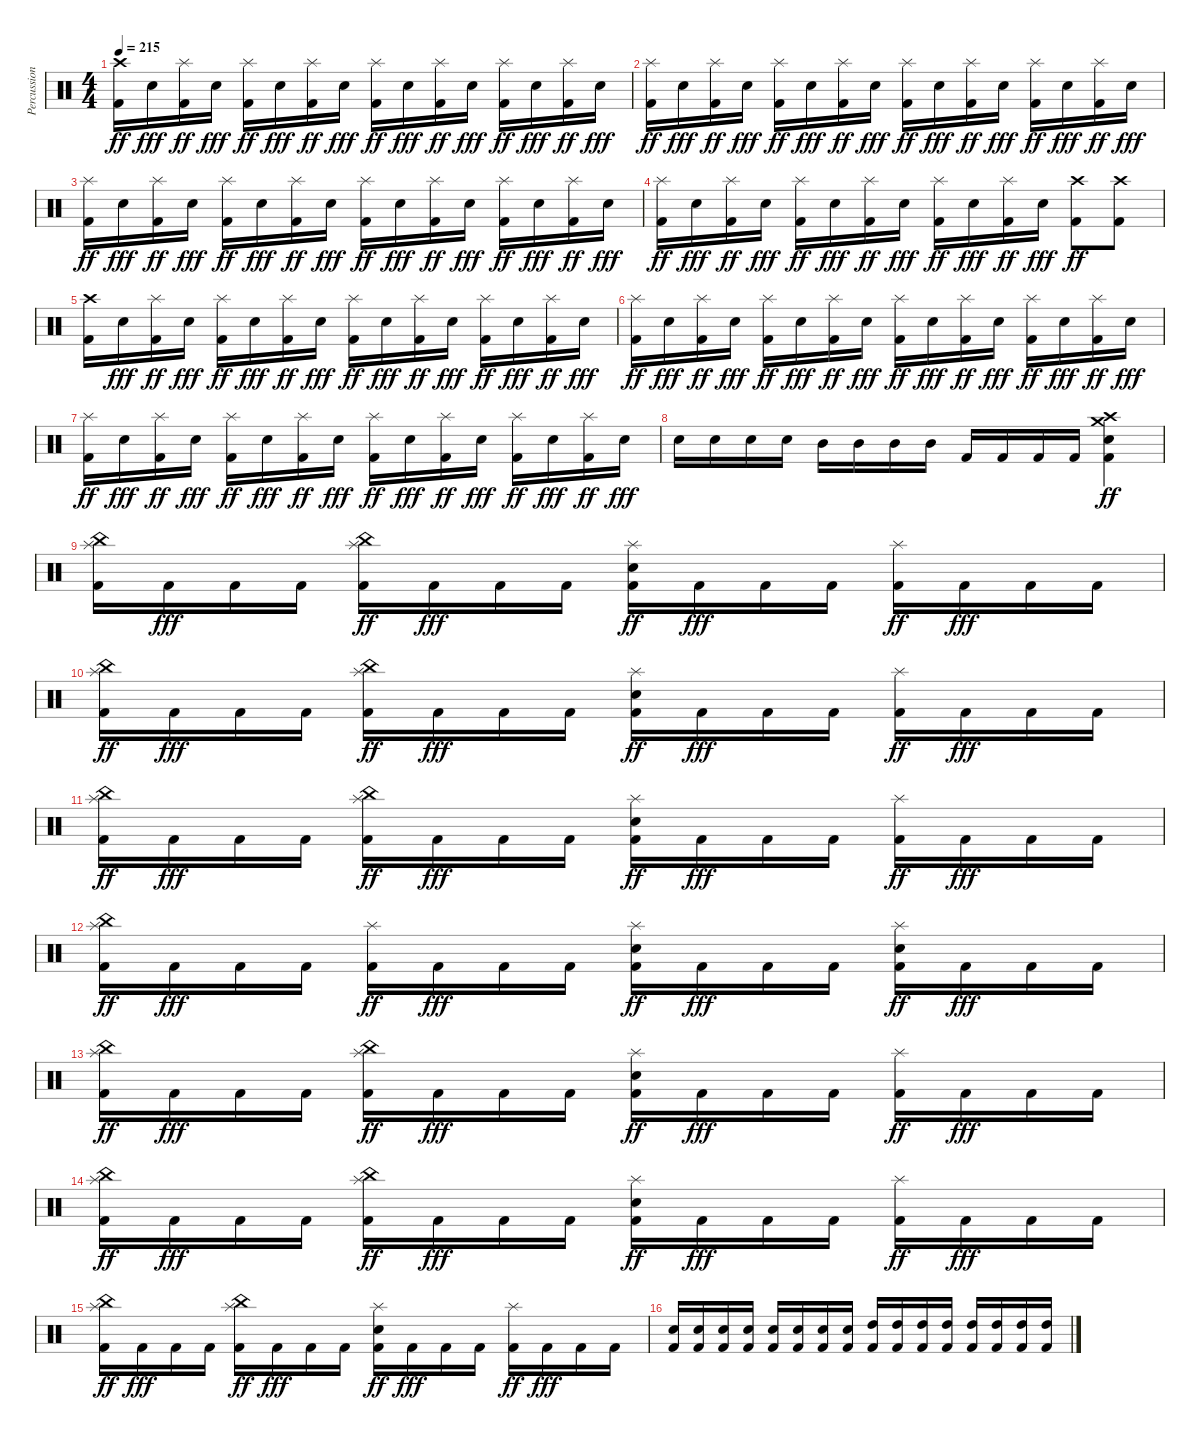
\track ("Percussion" "Percussion") {instrument percussion}
\staff {score}
\articulation defaults
\ts (4 4)
\tempo 215
\clef neutral
\ks c
("Kick (hit) 2" "Crash high (hit)").16{dy ff} "Electric Snare (hit)".16{dy fff} ("Kick (hit) 2" "Splash (hit)").16{dy ff} "Electric Snare (hit)".16{dy fff} ("Kick (hit) 2" "Splash (hit)").16{dy ff} "Electric Snare (hit)".16{dy fff} ("Kick (hit) 2" "Splash (hit)").16{dy ff} "Electric Snare (hit)".16{dy fff} ("Kick (hit) 2" "Splash (hit)").16{dy ff} "Electric Snare (hit)".16{dy fff} ("Kick (hit) 2" "Splash (hit)").16{dy ff} "Electric Snare (hit)".16{dy fff} ("Kick (hit) 2" "Splash (hit)").16{dy ff} "Electric Snare (hit)".16{dy fff} ("Kick (hit) 2" "Splash (hit)").16{dy ff} "Electric Snare (hit)".16{dy fff} |
("Kick (hit) 2" "Splash (hit)").16{dy ff} "Electric Snare (hit)".16{dy fff} ("Kick (hit) 2" "Splash (hit)").16{dy ff} "Electric Snare (hit)".16{dy fff} ("Kick (hit) 2" "Splash (hit)").16{dy ff} "Electric Snare (hit)".16{dy fff} ("Kick (hit) 2" "Splash (hit)").16{dy ff} "Electric Snare (hit)".16{dy fff} ("Kick (hit) 2" "Splash (hit)").16{dy ff} "Electric Snare (hit)".16{dy fff} ("Kick (hit) 2" "Splash (hit)").16{dy ff} "Electric Snare (hit)".16{dy fff} ("Kick (hit) 2" "Splash (hit)").16{dy ff} "Electric Snare (hit)".16{dy fff} ("Kick (hit) 2" "Splash (hit)").16{dy ff} "Electric Snare (hit)".16{dy fff} |
("Kick (hit) 2" "Splash (hit)").16{dy ff} "Electric Snare (hit)".16{dy fff} ("Kick (hit) 2" "Splash (hit)").16{dy ff} "Electric Snare (hit)".16{dy fff} ("Kick (hit) 2" "Splash (hit)").16{dy ff} "Electric Snare (hit)".16{dy fff} ("Kick (hit) 2" "Splash (hit)").16{dy ff} "Electric Snare (hit)".16{dy fff} ("Kick (hit) 2" "Splash (hit)").16{dy ff} "Electric Snare (hit)".16{dy fff} ("Kick (hit) 2" "Splash (hit)").16{dy ff} "Electric Snare (hit)".16{dy fff} ("Kick (hit) 2" "Splash (hit)").16{dy ff} "Electric Snare (hit)".16{dy fff} ("Kick (hit) 2" "Splash (hit)").16{dy ff} "Electric Snare (hit)".16{dy fff} |
("Kick (hit) 2" "Splash (hit)").16{dy ff} "Electric Snare (hit)".16{dy fff} ("Kick (hit) 2" "Splash (hit)").16{dy ff} "Electric Snare (hit)".16{dy fff} ("Kick (hit) 2" "Splash (hit)").16{dy ff} "Electric Snare (hit)".16{dy fff} ("Kick (hit) 2" "Splash (hit)").16{dy ff} "Electric Snare (hit)".16{dy fff} ("Kick (hit) 2" "Splash (hit)").16{dy ff} "Electric Snare (hit)".16{dy fff} ("Kick (hit) 2" "Splash (hit)").16{dy ff} "Electric Snare (hit)".16{dy fff} ("Kick (hit) 2" "Crash high (hit)").8{dy ff} ("Kick (hit) 2" "Crash high (hit)").8 |
("Kick (hit) 2" "Crash high (hit)").16 "Electric Snare (hit)".16{dy fff} ("Kick (hit) 2" "Splash (hit)").16{dy ff} "Electric Snare (hit)".16{dy fff} ("Kick (hit) 2" "Splash (hit)").16{dy ff} "Electric Snare (hit)".16{dy fff} ("Kick (hit) 2" "Splash (hit)").16{dy ff} "Electric Snare (hit)".16{dy fff} ("Kick (hit) 2" "Splash (hit)").16{dy ff} "Electric Snare (hit)".16{dy fff} ("Kick (hit) 2" "Splash (hit)").16{dy ff} "Electric Snare (hit)".16{dy fff} ("Kick (hit) 2" "Splash (hit)").16{dy ff} "Electric Snare (hit)".16{dy fff} ("Kick (hit) 2" "Splash (hit)").16{dy ff} "Electric Snare (hit)".16{dy fff} |
("Kick (hit) 2" "Splash (hit)").16{dy ff} "Electric Snare (hit)".16{dy fff} ("Kick (hit) 2" "Splash (hit)").16{dy ff} "Electric Snare (hit)".16{dy fff} ("Kick (hit) 2" "Splash (hit)").16{dy ff} "Electric Snare (hit)".16{dy fff} ("Kick (hit) 2" "Splash (hit)").16{dy ff} "Electric Snare (hit)".16{dy fff} ("Kick (hit) 2" "Splash (hit)").16{dy ff} "Electric Snare (hit)".16{dy fff} ("Kick (hit) 2" "Splash (hit)").16{dy ff} "Electric Snare (hit)".16{dy fff} ("Kick (hit) 2" "Splash (hit)").16{dy ff} "Electric Snare (hit)".16{dy fff} ("Kick (hit) 2" "Splash (hit)").16{dy ff} "Electric Snare (hit)".16{dy fff} |
("Kick (hit) 2" "Splash (hit)").16{dy ff} "Electric Snare (hit)".16{dy fff} ("Kick (hit) 2" "Splash (hit)").16{dy ff} "Electric Snare (hit)".16{dy fff} ("Kick (hit) 2" "Splash (hit)").16{dy ff} "Electric Snare (hit)".16{dy fff} ("Kick (hit) 2" "Splash (hit)").16{dy ff} "Electric Snare (hit)".16{dy fff} ("Kick (hit) 2" "Splash (hit)").16{dy ff} "Electric Snare (hit)".16{dy fff} ("Kick (hit) 2" "Splash (hit)").16{dy ff} "Electric Snare (hit)".16{dy fff} ("Kick (hit) 2" "Splash (hit)").16{dy ff} "Electric Snare (hit)".16{dy fff} ("Kick (hit) 2" "Splash (hit)").16{dy ff} "Electric Snare (hit)".16{dy fff} |
"Electric Snare (hit)".16 "Electric Snare (hit)".16 "Electric Snare (hit)".16 "Electric Snare (hit)".16 "Mid Tom (hit)".16 "Mid Tom (hit)".16 "Mid Tom (hit)".16 "Mid Tom (hit)".16 "Kick (hit) 2".16 "Kick (hit) 2".16 "Kick (hit) 2".16 "Kick (hit) 2".16 ("Kick (hit) 2" "Electric Snare (hit)" "Crash high (hit)" "Crash medium (hit)").4{dy ff} |
("Kick (hit) 2" "Splash (hit)" "China (hit)").16 "Kick (hit) 2".16{dy fff} "Kick (hit) 2".16 "Kick (hit) 2".16 ("Kick (hit) 2" "Splash (hit)" "China (hit)").16{dy ff} "Kick (hit) 2".16{dy fff} "Kick (hit) 2".16 "Kick (hit) 2".16 ("Kick (hit) 2" "Electric Snare (hit)" "Splash (hit)").16{dy ff} "Kick (hit) 2".16{dy fff} "Kick (hit) 2".16 "Kick (hit) 2".16 ("Kick (hit) 2" "Splash (hit)").16{dy ff} "Kick (hit) 2".16{dy fff} "Kick (hit) 2".16 "Kick (hit) 2".16 |
("Kick (hit) 2" "Splash (hit)" "China (hit)").16{dy ff} "Kick (hit) 2".16{dy fff} "Kick (hit) 2".16 "Kick (hit) 2".16 ("Kick (hit) 2" "Splash (hit)" "China (hit)").16{dy ff} "Kick (hit) 2".16{dy fff} "Kick (hit) 2".16 "Kick (hit) 2".16 ("Kick (hit) 2" "Electric Snare (hit)" "Splash (hit)").16{dy ff} "Kick (hit) 2".16{dy fff} "Kick (hit) 2".16 "Kick (hit) 2".16 ("Kick (hit) 2" "Splash (hit)").16{dy ff} "Kick (hit) 2".16{dy fff} "Kick (hit) 2".16 "Kick (hit) 2".16 |
("Kick (hit) 2" "Splash (hit)" "China (hit)").16{dy ff} "Kick (hit) 2".16{dy fff} "Kick (hit) 2".16 "Kick (hit) 2".16 ("Kick (hit) 2" "Splash (hit)" "China (hit)").16{dy ff} "Kick (hit) 2".16{dy fff} "Kick (hit) 2".16 "Kick (hit) 2".16 ("Kick (hit) 2" "Electric Snare (hit)" "Splash (hit)").16{dy ff} "Kick (hit) 2".16{dy fff} "Kick (hit) 2".16 "Kick (hit) 2".16 ("Kick (hit) 2" "Splash (hit)").16{dy ff} "Kick (hit) 2".16{dy fff} "Kick (hit) 2".16 "Kick (hit) 2".16 |
("Kick (hit) 2" "Splash (hit)" "China (hit)").16{dy ff} "Kick (hit) 2".16{dy fff} "Kick (hit) 2".16 "Kick (hit) 2".16 ("Kick (hit) 2" "Splash (hit)").16{dy ff} "Kick (hit) 2".16{dy fff} "Kick (hit) 2".16 "Kick (hit) 2".16 ("Kick (hit) 2" "Electric Snare (hit)" "Splash (hit)").16{dy ff} "Kick (hit) 2".16{dy fff} "Kick (hit) 2".16 "Kick (hit) 2".16 ("Kick (hit) 2" "Electric Snare (hit)" "Splash (hit)").16{dy ff} "Kick (hit) 2".16{dy fff} "Kick (hit) 2".16 "Kick (hit) 2".16 |
("Kick (hit) 2" "Splash (hit)" "China (hit)").16{dy ff} "Kick (hit) 2".16{dy fff} "Kick (hit) 2".16 "Kick (hit) 2".16 ("Kick (hit) 2" "Splash (hit)" "China (hit)").16{dy ff} "Kick (hit) 2".16{dy fff} "Kick (hit) 2".16 "Kick (hit) 2".16 ("Kick (hit) 2" "Electric Snare (hit)" "Splash (hit)").16{dy ff} "Kick (hit) 2".16{dy fff} "Kick (hit) 2".16 "Kick (hit) 2".16 ("Kick (hit) 2" "Splash (hit)").16{dy ff} "Kick (hit) 2".16{dy fff} "Kick (hit) 2".16 "Kick (hit) 2".16 |
("Kick (hit) 2" "Splash (hit)" "China (hit)").16{dy ff} "Kick (hit) 2".16{dy fff} "Kick (hit) 2".16 "Kick (hit) 2".16 ("Kick (hit) 2" "Splash (hit)" "China (hit)").16{dy ff} "Kick (hit) 2".16{dy fff} "Kick (hit) 2".16 "Kick (hit) 2".16 ("Kick (hit) 2" "Electric Snare (hit)" "Splash (hit)").16{dy ff} "Kick (hit) 2".16{dy fff} "Kick (hit) 2".16 "Kick (hit) 2".16 ("Kick (hit) 2" "Splash (hit)").16{dy ff} "Kick (hit) 2".16{dy fff} "Kick (hit) 2".16 "Kick (hit) 2".16 |
("Kick (hit) 2" "Splash (hit)" "China (hit)").16{dy ff} "Kick (hit) 2".16{dy fff} "Kick (hit) 2".16 "Kick (hit) 2".16 ("Kick (hit) 2" "Splash (hit)" "China (hit)").16{dy ff} "Kick (hit) 2".16{dy fff} "Kick (hit) 2".16 "Kick (hit) 2".16 ("Kick (hit) 2" "Electric Snare (hit)" "Splash (hit)").16{dy ff} "Kick (hit) 2".16{dy fff} "Kick (hit) 2".16 "Kick (hit) 2".16 ("Kick (hit) 2" "Splash (hit)").16{dy ff} "Kick (hit) 2".16{dy fff} "Kick (hit) 2".16 "Kick (hit) 2".16 |
("Kick (hit) 2" "Electric Snare (hit)").16 ("Kick (hit) 2" "Electric Snare (hit)").16 ("Kick (hit) 2" "Electric Snare (hit)").16 ("Kick (hit) 2" "Electric Snare (hit)").16 ("Kick (hit) 2" "Electric Snare (hit)").16 ("Kick (hit) 2" "Electric Snare (hit)").16 ("Kick (hit) 2" "Electric Snare (hit)").16 ("Kick (hit) 2" "Electric Snare (hit)").16 ("Kick (hit) 2" "High Tom (hit)").16 ("Kick (hit) 2" "High Tom (hit)").16 ("Kick (hit) 2" "High Tom (hit)").16 ("Kick (hit) 2" "High Tom (hit)").16 ("Kick (hit) 2" "High Tom (hit)").16 ("Kick (hit) 2" "High Tom (hit)").16 ("Kick (hit) 2" "High Tom (hit)").16 ("Kick (hit) 2" "High Tom (hit)").16
